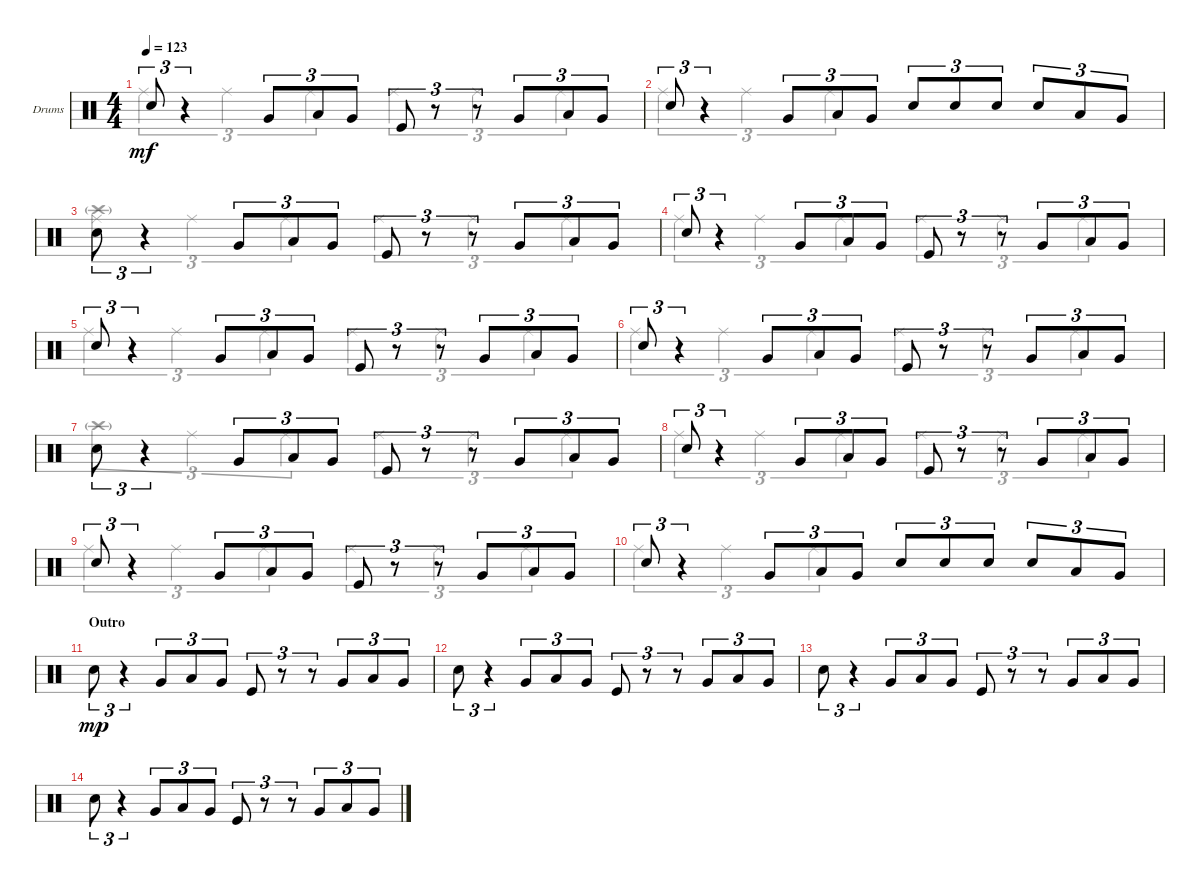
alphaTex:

\defaultSystemsLayout 4
\bracketExtendMode groupsimilarinstruments
\firstSystemTrackNameOrientation horizontal
\otherSystemsTrackNameOrientation horizontal
\track ("Drumkit" "Drums") {multiBarRest instrument percussion}
\staff {score}
\articulation defaults
\voice
\ts (4 4)
\tempo 123
\clef neutral
\ks c "Snare (hit) 2".8{tu (3 2) dy mf}
r.4{tu (3 2)} "Very Low Tom (hit)".8{tu (3 2)} "Low Tom (hit)".8{tu (3 2)} "Very Low Tom (hit)".8{tu (3 2)} "Kick (hit)".8{tu (3 2)} r.8{tu (3 2)} r.8{tu (3 2)} "Very Low Tom (hit)".8{tu (3 2)} "Low Tom (hit)".8{tu (3 2)} "Very Low Tom (hit)".8{tu (3 2)} |
"Snare (hit) 2".8{tu (3 2)} r.4{tu (3 2)} "Very Low Tom (hit)".8{tu (3 2)} "Low Tom (hit)".8{tu (3 2)} "Very Low Tom (hit)".8{tu (3 2)} "Snare (hit) 2".8{tu (3 2)} "Snare (hit) 2".8{tu (3 2)} "Snare (hit) 2".8{tu (3 2)} "Snare (hit) 2".8{tu (3 2)} "Low Tom (hit)".8{tu (3 2)} "Very Low Tom (hit)".8{tu (3 2)} |
"Snare (hit) 2".8{tu (3 2) beam invert} r.4{tu (3 2)} "Very Low Tom (hit)".8{tu (3 2)} "Low Tom (hit)".8{tu (3 2)} "Very Low Tom (hit)".8{tu (3 2)} "Kick (hit)".8{tu (3 2)} r.8{tu (3 2)} r.8{tu (3 2)} "Very Low Tom (hit)".8{tu (3 2)} "Low Tom (hit)".8{tu (3 2)} "Very Low Tom (hit)".8{tu (3 2)} |
"Snare (hit) 2".8{tu (3 2)} r.4{tu (3 2)} "Very Low Tom (hit)".8{tu (3 2)} "Low Tom (hit)".8{tu (3 2)} "Very Low Tom (hit)".8{tu (3 2)} "Kick (hit)".8{tu (3 2)} r.8{tu (3 2)} r.8{tu (3 2)} "Very Low Tom (hit)".8{tu (3 2)} "Low Tom (hit)".8{tu (3 2)} "Very Low Tom (hit)".8{tu (3 2)} |
"Snare (hit) 2".8{tu (3 2)} r.4{tu (3 2)} "Very Low Tom (hit)".8{tu (3 2)} "Low Tom (hit)".8{tu (3 2)} "Very Low Tom (hit)".8{tu (3 2)} "Kick (hit)".8{tu (3 2)} r.8{tu (3 2)} r.8{tu (3 2)} "Very Low Tom (hit)".8{tu (3 2)} "Low Tom (hit)".8{tu (3 2)} "Very Low Tom (hit)".8{tu (3 2)} |
"Snare (hit) 2".8{tu (3 2)} r.4{tu (3 2)} "Very Low Tom (hit)".8{tu (3 2)} "Low Tom (hit)".8{tu (3 2)} "Very Low Tom (hit)".8{tu (3 2)} "Kick (hit)".8{tu (3 2)} r.8{tu (3 2)} r.8{tu (3 2)} "Very Low Tom (hit)".8{tu (3 2)} "Low Tom (hit)".8{tu (3 2)} "Very Low Tom (hit)".8{tu (3 2)} |
"Snare (hit) 2".8{tu (3 2) beam invert} r.4{tu (3 2)} "Very Low Tom (hit)".8{tu (3 2)} "Low Tom (hit)".8{tu (3 2)} "Very Low Tom (hit)".8{tu (3 2)} "Kick (hit)".8{tu (3 2)} r.8{tu (3 2)} r.8{tu (3 2)} "Very Low Tom (hit)".8{tu (3 2)} "Low Tom (hit)".8{tu (3 2)} "Very Low Tom (hit)".8{tu (3 2)} |
"Snare (hit) 2".8{tu (3 2)} r.4{tu (3 2)} "Very Low Tom (hit)".8{tu (3 2)} "Low Tom (hit)".8{tu (3 2)} "Very Low Tom (hit)".8{tu (3 2)} "Kick (hit)".8{tu (3 2)} r.8{tu (3 2)} r.8{tu (3 2)} "Very Low Tom (hit)".8{tu (3 2)} "Low Tom (hit)".8{tu (3 2)} "Very Low Tom (hit)".8{tu (3 2)} |
"Snare (hit) 2".8{tu (3 2)} r.4{tu (3 2)} "Very Low Tom (hit)".8{tu (3 2)} "Low Tom (hit)".8{tu (3 2)} "Very Low Tom (hit)".8{tu (3 2)} "Kick (hit)".8{tu (3 2)} r.8{tu (3 2)} r.8{tu (3 2)} "Very Low Tom (hit)".8{tu (3 2)} "Low Tom (hit)".8{tu (3 2)} "Very Low Tom (hit)".8{tu (3 2)} |
"Snare (hit) 2".8{tu (3 2)} r.4{tu (3 2)} "Very Low Tom (hit)".8{tu (3 2)} "Low Tom (hit)".8{tu (3 2)} "Very Low Tom (hit)".8{tu (3 2)} "Snare (hit) 2".8{tu (3 2)} "Snare (hit) 2".8{tu (3 2)} "Snare (hit) 2".8{tu (3 2)} "Snare (hit) 2".8{tu (3 2)} "Low Tom (hit)".8{tu (3 2)} "Very Low Tom (hit)".8{tu (3 2)} |
\section ("" "Outro")
"Snare (hit) 2".8{tu (3 2) dy mp} r.4{tu (3 2)} "Very Low Tom (hit)".8{tu (3 2)} "Low Tom (hit)".8{tu (3 2)} "Very Low Tom (hit)".8{tu (3 2)} "Kick (hit)".8{tu (3 2)} r.8{tu (3 2)} r.8{tu (3 2)} "Very Low Tom (hit)".8{tu (3 2)} "Low Tom (hit)".8{tu (3 2)} "Very Low Tom (hit)".8{tu (3 2)} |
"Snare (hit) 2".8{tu (3 2)} r.4{tu (3 2)} "Very Low Tom (hit)".8{tu (3 2)} "Low Tom (hit)".8{tu (3 2)} "Very Low Tom (hit)".8{tu (3 2)} "Kick (hit)".8{tu (3 2)} r.8{tu (3 2)} r.8{tu (3 2)} "Very Low Tom (hit)".8{tu (3 2)} "Low Tom (hit)".8{tu (3 2)} "Very Low Tom (hit)".8{tu (3 2)} |
"Snare (hit) 2".8{tu (3 2)} r.4{tu (3 2)} "Very Low Tom (hit)".8{tu (3 2)} "Low Tom (hit)".8{tu (3 2)} "Very Low Tom (hit)".8{tu (3 2)} "Kick (hit)".8{tu (3 2)} r.8{tu (3 2)} r.8{tu (3 2)} "Very Low Tom (hit)".8{tu (3 2)} "Low Tom (hit)".8{tu (3 2)} "Very Low Tom (hit)".8{tu (3 2)} |
"Snare (hit) 2".8{tu (3 2)} r.4{tu (3 2)} "Very Low Tom (hit)".8{tu (3 2)} "Low Tom (hit)".8{tu (3 2)} "Very Low Tom (hit)".8{tu (3 2)} "Kick (hit)".8{tu (3 2)} r.8{tu (3 2)} r.8{tu (3 2)} "Very Low Tom (hit)".8{tu (3 2)} "Low Tom (hit)".8{tu (3 2)} "Very Low Tom (hit)".8{tu (3 2)} |
|
\voice
\clef neutral
\ottava regular
\simile none
\ks c "Ride (middle)".4{tu (3 2) dy mf} "Ride (middle)".4{tu (3 2)} "Ride (middle)".4{tu (3 2)} "Ride (middle)".4{tu (3 2)} "Ride (middle)".4{tu (3 2)} "Ride (middle)".4{tu (3 2)}
|
"Ride (middle)".4{tu (3 2)} "Ride (middle)".4{tu (3 2)} "Ride (middle)".4{tu (3 2)} |
("Crash high (hit)"{g} "Ride (middle)").4{tu (3 2)} "Ride (middle)".4{tu (3 2)} "Ride (middle)".4{tu (3 2)} "Ride (middle)".4{tu (3 2)} "Ride (middle)".4{tu (3 2)} "Ride (middle)".4{tu (3 2)} |
"Ride (middle)".4{tu (3 2)} "Ride (middle)".4{tu (3 2)} "Ride (middle)".4{tu (3 2)} "Ride (middle)".4{tu (3 2)} "Ride (middle)".4{tu (3 2)} "Ride (middle)".4{tu (3 2)} |
"Ride (middle)".4{tu (3 2)} "Ride (middle)".4{tu (3 2)} "Ride (middle)".4{tu (3 2)} "Ride (middle)".4{tu (3 2)} "Ride (middle)".4{tu (3 2)} "Ride (middle)".4{tu (3 2)} |
"Ride (middle)".4{tu (3 2)} "Ride (middle)".4{tu (3 2)} "Ride (middle)".4{tu (3 2)} "Ride (middle)".4{tu (3 2)} "Ride (middle)".4{tu (3 2)} "Ride (middle)".4{tu (3 2)} |
"Crash high (hit)"{g}.4{tu (3 2)} "Ride (middle)".4{tu (3 2)} "Ride (middle)".4{tu (3 2)} "Ride (middle)".4{tu (3 2)} "Ride (middle)".4{tu (3 2)} "Ride (middle)".4{tu (3 2)} |
"Ride (middle)".4{tu (3 2)} "Ride (middle)".4{tu (3 2)} "Ride (middle)".4{tu (3 2)} "Ride (middle)".4{tu (3 2)} "Ride (middle)".4{tu (3 2)} "Ride (middle)".4{tu (3 2)} |
"Ride (middle)".4{tu (3 2)} "Ride (middle)".4{tu (3 2)} "Ride (middle)".4{tu (3 2)} "Ride (middle)".4{tu (3 2)} "Ride (middle)".4{tu (3 2)} "Ride (middle)".4{tu (3 2)} |
"Ride (middle)".4{tu (3 2)} "Ride (middle)".4{tu (3 2)} "Ride (middle)".4{tu (3 2)} |
|
|
|
|
|
